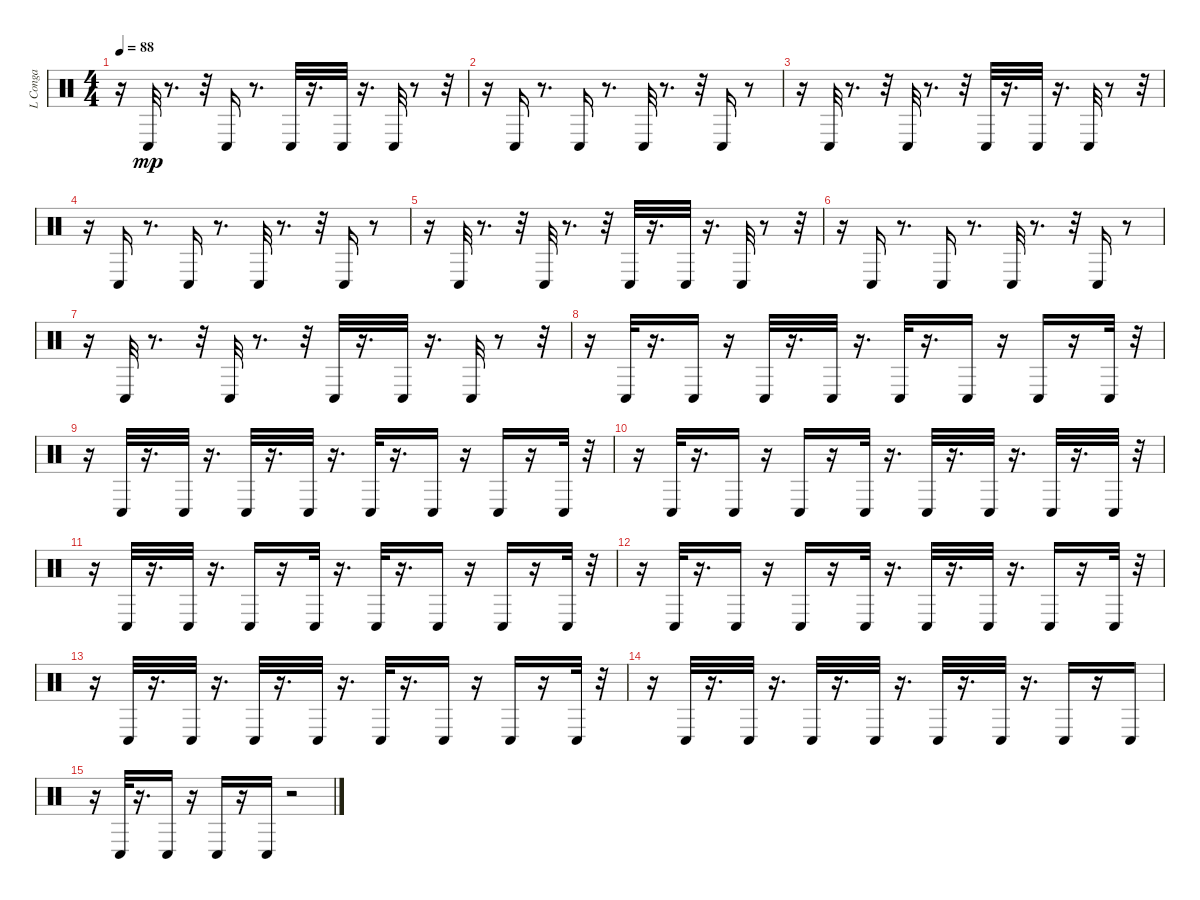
\track ("L Conga" "L Conga") {instrument percussion}
\staff {score}
\articulation defaults
\ts (4 4)
\tempo 88
\clef neutral
\ks c
r.16{dy mp} "Conga low (hit)".32 r.8{d} r.32 "Conga low (hit)".16 r.8{d} "Conga low (hit)".32 r.16{d} "Conga low (hit)".32 r.16{d} "Conga low (hit)".32 r.8 r.32 |
r.16 "Conga low (hit)".16 r.8{d} "Conga low (hit)".16 r.8{d} "Conga low (hit)".32 r.8{d} r.32 "Conga low (hit)".16 r.8 |
r.16 "Conga low (hit)".32 r.8{d} r.32 "Conga low (hit)".32 r.8{d} r.32 "Conga low (hit)".32 r.16{d} "Conga low (hit)".32 r.16{d} "Conga low (hit)".32 r.8 r.32 |
r.16 "Conga low (hit)".16 r.8{d} "Conga low (hit)".16 r.8{d} "Conga low (hit)".32 r.8{d} r.32 "Conga low (hit)".16 r.8 |
r.16 "Conga low (hit)".32 r.8{d} r.32 "Conga low (hit)".32 r.8{d} r.32 "Conga low (hit)".32 r.16{d} "Conga low (hit)".32 r.16{d} "Conga low (hit)".32 r.8 r.32 |
r.16 "Conga low (hit)".16 r.8{d} "Conga low (hit)".16 r.8{d} "Conga low (hit)".32 r.8{d} r.32 "Conga low (hit)".16 r.8 |
r.16 "Conga low (hit)".32 r.8{d} r.32 "Conga low (hit)".32 r.8{d} r.32 "Conga low (hit)".32 r.16{d} "Conga low (hit)".32 r.16{d} "Conga low (hit)".32 r.8 r.32 |
r.16 "Conga low (hit)".32 r.16{d} "Conga low (hit)".16 r.16 "Conga low (hit)".32 r.16{d} "Conga low (hit)".32 r.16{d} "Conga low (hit)".32 r.16{d} "Conga low (hit)".16 r.16 "Conga low (hit)".16 r.16 "Conga low (hit)".32 r.32 |
r.16 "Conga low (hit)".32 r.16{d} "Conga low (hit)".32 r.16{d} "Conga low (hit)".32 r.16{d} "Conga low (hit)".32 r.16{d} "Conga low (hit)".32 r.16{d} "Conga low (hit)".16 r.16 "Conga low (hit)".16 r.16 "Conga low (hit)".32 r.32 |
r.16 "Conga low (hit)".32 r.16{d} "Conga low (hit)".16 r.16 "Conga low (hit)".16 r.16 "Conga low (hit)".32 r.16{d} "Conga low (hit)".32 r.16{d} "Conga low (hit)".32 r.16{d} "Conga low (hit)".32 r.16{d} "Conga low (hit)".32 r.32 |
r.16 "Conga low (hit)".32 r.16{d} "Conga low (hit)".32 r.16{d} "Conga low (hit)".16 r.16 "Conga low (hit)".32 r.16{d} "Conga low (hit)".32 r.16{d} "Conga low (hit)".16 r.16 "Conga low (hit)".16 r.16 "Conga low (hit)".32 r.32 |
r.16 "Conga low (hit)".32 r.16{d} "Conga low (hit)".16 r.16 "Conga low (hit)".16 r.16 "Conga low (hit)".32 r.16{d} "Conga low (hit)".32 r.16{d} "Conga low (hit)".32 r.16{d} "Conga low (hit)".16 r.16 "Conga low (hit)".32 r.32 |
r.16 "Conga low (hit)".32 r.16{d} "Conga low (hit)".32 r.16{d} "Conga low (hit)".32 r.16{d} "Conga low (hit)".32 r.16{d} "Conga low (hit)".32 r.16{d} "Conga low (hit)".16 r.16 "Conga low (hit)".16 r.16 "Conga low (hit)".32 r.32 |
r.16 "Conga low (hit)".32 r.16{d} "Conga low (hit)".32 r.16{d} "Conga low (hit)".32 r.16{d} "Conga low (hit)".32 r.16{d} "Conga low (hit)".32 r.16{d} "Conga low (hit)".32 r.16{d} "Conga low (hit)".16 r.16 "Conga low (hit)".16 |
r.16 "Conga low (hit)".32 r.16{d} "Conga low (hit)".16 r.16 "Conga low (hit)".16 r.16 "Conga low (hit)".16 r.2
